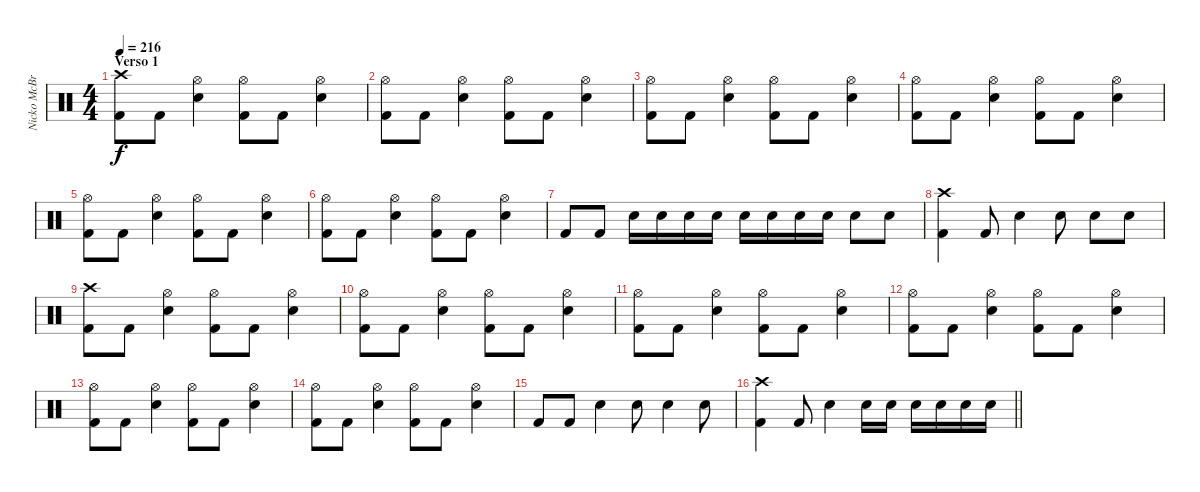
\track ("Nicko McBrain" "Nicko McBr") {instrument percussion}
\staff {score}
\articulation defaults
\ts (4 4)
\section ("" "Verso 1")
\tempo 216
\clef neutral
\ks c
("Crash high (hit)" "Kick (hit) 2").8{dy f} "Kick (hit) 2".8 ("Hi-Hat (open)" "Snare (hit) 2").4 ("Hi-Hat (open)" "Kick (hit) 2").8 "Kick (hit) 2".8 ("Hi-Hat (open)" "Snare (hit) 2").4 |
("Hi-Hat (open)" "Kick (hit) 2").8 "Kick (hit) 2".8 ("Hi-Hat (open)" "Snare (hit) 2").4 ("Hi-Hat (open)" "Kick (hit) 2").8 "Kick (hit) 2".8 ("Hi-Hat (open)" "Snare (hit) 2").4 |
("Hi-Hat (open)" "Kick (hit) 2").8 "Kick (hit) 2".8 ("Hi-Hat (open)" "Snare (hit) 2").4 ("Hi-Hat (open)" "Kick (hit) 2").8 "Kick (hit) 2".8 ("Hi-Hat (open)" "Snare (hit) 2").4 |
("Hi-Hat (open)" "Kick (hit) 2").8 "Kick (hit) 2".8 ("Hi-Hat (open)" "Snare (hit) 2").4 ("Hi-Hat (open)" "Kick (hit) 2").8 "Kick (hit) 2".8 ("Hi-Hat (open)" "Snare (hit) 2").4 |
("Hi-Hat (open)" "Kick (hit) 2").8 "Kick (hit) 2".8 ("Hi-Hat (open)" "Snare (hit) 2").4 ("Hi-Hat (open)" "Kick (hit) 2").8 "Kick (hit) 2".8 ("Hi-Hat (open)" "Snare (hit) 2").4 |
("Hi-Hat (open)" "Kick (hit) 2").8 "Kick (hit) 2".8 ("Hi-Hat (open)" "Snare (hit) 2").4 ("Hi-Hat (open)" "Kick (hit) 2").8 "Kick (hit) 2".8 ("Hi-Hat (open)" "Snare (hit) 2").4 |
"Kick (hit) 2".8 "Kick (hit) 2".8 "Snare (hit) 2".16 "Snare (hit) 2".16 "Snare (hit) 2".16 "Snare (hit) 2".16 "Snare (hit) 2".16 "Snare (hit) 2".16 "Snare (hit) 2".16 "Snare (hit) 2".16 "Snare (hit) 2".8 "Snare (hit) 2".8 |
("Crash high (hit)" "Kick (hit) 2").4 "Kick (hit) 2".8 "Snare (hit) 2".4 "Snare (hit) 2".8 "Snare (hit) 2".8 "Snare (hit) 2".8 |
("Crash high (hit)" "Kick (hit) 2").8 "Kick (hit) 2".8 ("Hi-Hat (open)" "Snare (hit) 2").4 ("Hi-Hat (open)" "Kick (hit) 2").8 "Kick (hit) 2".8 ("Hi-Hat (open)" "Snare (hit) 2").4 |
("Hi-Hat (open)" "Kick (hit) 2").8 "Kick (hit) 2".8 ("Hi-Hat (open)" "Snare (hit) 2").4 ("Hi-Hat (open)" "Kick (hit) 2").8 "Kick (hit) 2".8 ("Hi-Hat (open)" "Snare (hit) 2").4 |
("Hi-Hat (open)" "Kick (hit) 2").8 "Kick (hit) 2".8 ("Hi-Hat (open)" "Snare (hit) 2").4 ("Hi-Hat (open)" "Kick (hit) 2").8 "Kick (hit) 2".8 ("Hi-Hat (open)" "Snare (hit) 2").4 |
("Hi-Hat (open)" "Kick (hit) 2").8 "Kick (hit) 2".8 ("Hi-Hat (open)" "Snare (hit) 2").4 ("Hi-Hat (open)" "Kick (hit) 2").8 "Kick (hit) 2".8 ("Hi-Hat (open)" "Snare (hit) 2").4 |
("Hi-Hat (open)" "Kick (hit) 2").8 "Kick (hit) 2".8 ("Hi-Hat (open)" "Snare (hit) 2").4 ("Hi-Hat (open)" "Kick (hit) 2").8 "Kick (hit) 2".8 ("Hi-Hat (open)" "Snare (hit) 2").4 |
("Hi-Hat (open)" "Kick (hit) 2").8 "Kick (hit) 2".8 ("Hi-Hat (open)" "Snare (hit) 2").4 ("Hi-Hat (open)" "Kick (hit) 2").8 "Kick (hit) 2".8 ("Hi-Hat (open)" "Snare (hit) 2").4 |
"Kick (hit) 2".8 "Kick (hit) 2".8 "Snare (hit) 2".4 "Snare (hit) 2".8 "Snare (hit) 2".4 "Snare (hit) 2".8 |
\barLineRight lightlight
("Crash high (hit)" "Kick (hit) 2").4 "Kick (hit) 2".8 "Snare (hit) 2".4 "Snare (hit) 2".16 "Snare (hit) 2".16 "Snare (hit) 2".16 "Snare (hit) 2".16 "Snare (hit) 2".16 "Snare (hit) 2".16
